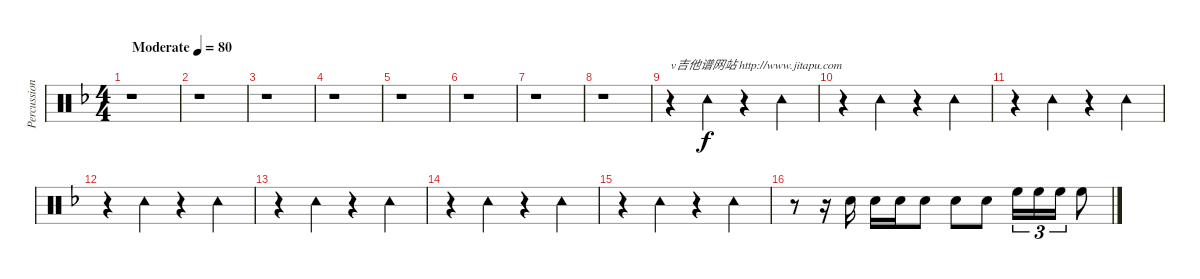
\track ("Percussion" "Percussion") {instrument percussion}
\staff {score}
\articulation defaults
\ts (4 4)
\tempo (80 "Moderate")
\clef neutral
\ks f
r.1{dy f} |
r.1 |
r.1 |
r.1 |
r.1 |
r.1 |
r.1 |
r.1 |
r.4{txt "v吉他谱网站 http://www.jitapu.com"} "Tambourine (hit)".4 r.4 "Tambourine (hit)".4 |
r.4 "Tambourine (hit)".4 r.4 "Tambourine (hit)".4 |
r.4 "Tambourine (hit)".4 r.4 "Tambourine (hit)".4 |
r.4 "Tambourine (hit)".4 r.4 "Tambourine (hit)".4 |
r.4 "Tambourine (hit)".4 r.4 "Tambourine (hit)".4 |
r.4 "Tambourine (hit)".4 r.4 "Tambourine (hit)".4 |
r.4 "Tambourine (hit)".4 r.4 "Tambourine (hit)".4 |
r.8 r.16 "Snare (hit) 2".16 "Snare (hit) 2".16 "Snare (hit) 2".16 "Snare (hit) 2".8 "Snare (hit) 2".8 "Snare (hit) 2".8 "High Floor Tom (hit)".16{tu (3 2)} "High Floor Tom (hit)".16{tu (3 2)} "High Floor Tom (hit)".16{tu (3 2)} "High Floor Tom (hit)".8
